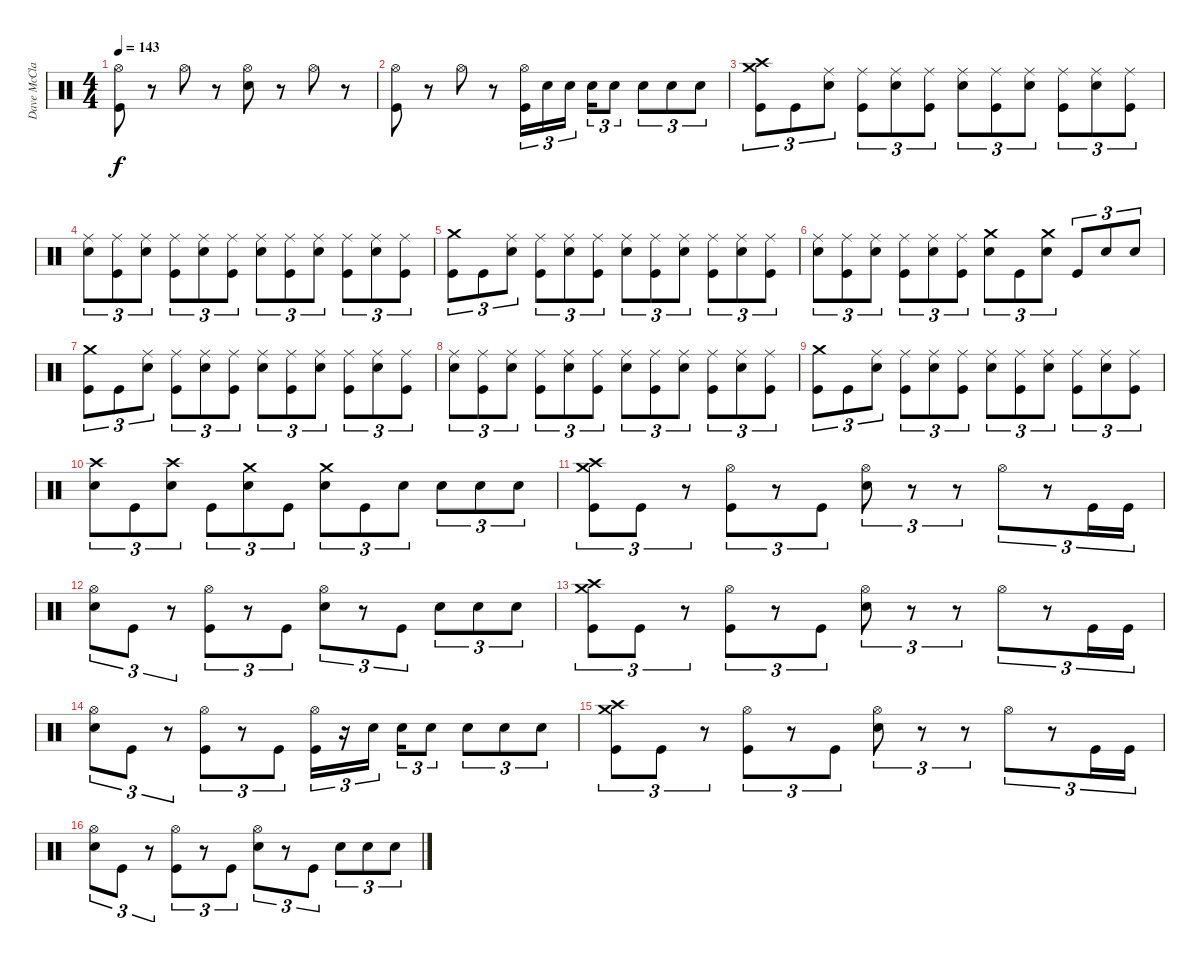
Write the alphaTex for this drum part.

\track ("Dave McClaine" "Dave McCla") {instrument percussion}
\staff {score}
\articulation defaults
\ts (4 4)
\tempo 143
\clef neutral
\ks c
("Kick (hit)" "Hi-Hat (open)").8{dy f} r.8 "Hi-Hat (open)".8 r.8 ("Hi-Hat (open)" "Snare (hit) 2").8 r.8 "Hi-Hat (open)".8 r.8 |
("Kick (hit)" "Hi-Hat (open)").8 r.8 "Hi-Hat (open)".8 r.8 ("Kick (hit)" "Hi-Hat (open)").16{tu (3 2)} "Snare (hit) 2".16{tu (3 2)} "Snare (hit) 2".16{tu (3 2)} "Snare (hit) 2".16{tu (3 2)} "Snare (hit) 2".8{tu (3 2)} "Snare (hit) 2".8{tu (3 2)} "Snare (hit) 2".8{tu (3 2)} "Snare (hit) 2".8{tu (3 2)} |
("Crash high (hit)" "Crash medium (hit)" "Kick (hit)").8{tu (3 2)} "Kick (hit)".8{tu (3 2)} ("Snare (hit) 2" "Ride (middle)").8{tu (3 2)} ("Kick (hit)" "Ride (middle)").8{tu (3 2)} ("Snare (hit) 2" "Ride (middle)").8{tu (3 2)} ("Kick (hit)" "Ride (middle)").8{tu (3 2)} ("Snare (hit) 2" "Ride (middle)").8{tu (3 2)} ("Kick (hit)" "Ride (middle)").8{tu (3 2)} ("Snare (hit) 2" "Ride (middle)").8{tu (3 2)} ("Kick (hit)" "Ride (middle)").8{tu (3 2)} ("Snare (hit) 2" "Ride (middle)").8{tu (3 2)} ("Kick (hit)" "Ride (middle)").8{tu (3 2)} |
("Snare (hit) 2" "Ride (middle)").8{tu (3 2)} ("Kick (hit)" "Ride (middle)").8{tu (3 2)} ("Snare (hit) 2" "Ride (middle)").8{tu (3 2)} ("Kick (hit)" "Ride (middle)").8{tu (3 2)} ("Snare (hit) 2" "Ride (middle)").8{tu (3 2)} ("Kick (hit)" "Ride (middle)").8{tu (3 2)} ("Snare (hit) 2" "Ride (middle)").8{tu (3 2)} ("Kick (hit)" "Ride (middle)").8{tu (3 2)} ("Snare (hit) 2" "Ride (middle)").8{tu (3 2)} ("Kick (hit)" "Ride (middle)").8{tu (3 2)} ("Snare (hit) 2" "Ride (middle)").8{tu (3 2)} ("Kick (hit)" "Ride (middle)").8{tu (3 2)} |
("Crash medium (hit)" "Kick (hit)").8{tu (3 2)} "Kick (hit)".8{tu (3 2)} ("Snare (hit) 2" "Ride (middle)").8{tu (3 2)} ("Kick (hit)" "Ride (middle)").8{tu (3 2)} ("Snare (hit) 2" "Ride (middle)").8{tu (3 2)} ("Kick (hit)" "Ride (middle)").8{tu (3 2)} ("Snare (hit) 2" "Ride (middle)").8{tu (3 2)} ("Kick (hit)" "Ride (middle)").8{tu (3 2)} ("Snare (hit) 2" "Ride (middle)").8{tu (3 2)} ("Kick (hit)" "Ride (middle)").8{tu (3 2)} ("Snare (hit) 2" "Ride (middle)").8{tu (3 2)} ("Kick (hit)" "Ride (middle)").8{tu (3 2)} |
("Snare (hit) 2" "Ride (middle)").8{tu (3 2)} ("Kick (hit)" "Ride (middle)").8{tu (3 2)} ("Snare (hit) 2" "Ride (middle)").8{tu (3 2)} ("Kick (hit)" "Ride (middle)").8{tu (3 2)} ("Snare (hit) 2" "Ride (middle)").8{tu (3 2)} ("Kick (hit)" "Ride (middle)").8{tu (3 2)} ("Snare (hit) 2" "Crash medium (hit)").8{tu (3 2)} "Kick (hit)".8{tu (3 2)} ("Snare (hit) 2" "Crash medium (hit)").8{tu (3 2)} "Kick (hit)".8{tu (3 2)} "Snare (hit) 2".8{tu (3 2)} "Snare (hit) 2".8{tu (3 2)} |
("Crash medium (hit)" "Kick (hit)").8{tu (3 2)} "Kick (hit)".8{tu (3 2)} ("Snare (hit) 2" "Ride (middle)").8{tu (3 2)} ("Kick (hit)" "Ride (middle)").8{tu (3 2)} ("Snare (hit) 2" "Ride (middle)").8{tu (3 2)} ("Kick (hit)" "Ride (middle)").8{tu (3 2)} ("Snare (hit) 2" "Ride (middle)").8{tu (3 2)} ("Kick (hit)" "Ride (middle)").8{tu (3 2)} ("Snare (hit) 2" "Ride (middle)").8{tu (3 2)} ("Kick (hit)" "Ride (middle)").8{tu (3 2)} ("Snare (hit) 2" "Ride (middle)").8{tu (3 2)} ("Kick (hit)" "Ride (middle)").8{tu (3 2)} |
("Snare (hit) 2" "Ride (middle)").8{tu (3 2)} ("Kick (hit)" "Ride (middle)").8{tu (3 2)} ("Snare (hit) 2" "Ride (middle)").8{tu (3 2)} ("Kick (hit)" "Ride (middle)").8{tu (3 2)} ("Snare (hit) 2" "Ride (middle)").8{tu (3 2)} ("Kick (hit)" "Ride (middle)").8{tu (3 2)} ("Snare (hit) 2" "Ride (middle)").8{tu (3 2)} ("Kick (hit)" "Ride (middle)").8{tu (3 2)} ("Snare (hit) 2" "Ride (middle)").8{tu (3 2)} ("Kick (hit)" "Ride (middle)").8{tu (3 2)} ("Snare (hit) 2" "Ride (middle)").8{tu (3 2)} ("Kick (hit)" "Ride (middle)").8{tu (3 2)} |
("Crash medium (hit)" "Kick (hit)").8{tu (3 2)} "Kick (hit)".8{tu (3 2)} ("Snare (hit) 2" "Ride (middle)").8{tu (3 2)} ("Kick (hit)" "Ride (middle)").8{tu (3 2)} ("Snare (hit) 2" "Ride (middle)").8{tu (3 2)} ("Kick (hit)" "Ride (middle)").8{tu (3 2)} ("Snare (hit) 2" "Ride (middle)").8{tu (3 2)} ("Kick (hit)" "Ride (middle)").8{tu (3 2)} ("Snare (hit) 2" "Ride (middle)").8{tu (3 2)} ("Kick (hit)" "Ride (middle)").8{tu (3 2)} ("Snare (hit) 2" "Ride (middle)").8{tu (3 2)} ("Kick (hit)" "Ride (middle)").8{tu (3 2)} |
("Snare (hit) 2" "Crash high (hit)").8{tu (3 2)} "Kick (hit)".8{tu (3 2)} ("Snare (hit) 2" "Crash high (hit)").8{tu (3 2)} "Kick (hit)".8{tu (3 2)} ("Snare (hit) 2" "Crash medium (hit)").8{tu (3 2)} "Kick (hit)".8{tu (3 2)} ("Snare (hit) 2" "Crash medium (hit)").8{tu (3 2)} "Kick (hit)".8{tu (3 2)} "Snare (hit) 2".8{tu (3 2)} "Snare (hit) 2".8{tu (3 2)} "Snare (hit) 2".8{tu (3 2)} "Snare (hit) 2".8{tu (3 2)} |
("Kick (hit)" "Crash high (hit)" "Crash medium (hit)").8{tu (3 2)} "Kick (hit)".8{tu (3 2)} r.8{tu (3 2)} ("Hi-Hat (open)" "Kick (hit)").8{tu (3 2)} r.8{tu (3 2)} "Kick (hit)".8{tu (3 2)} ("Snare (hit) 2" "Hi-Hat (open)").8{tu (3 2)} r.8{tu (3 2)} r.8{tu (3 2)} "Hi-Hat (open)".8{tu (3 2)} r.8{tu (3 2)} "Kick (hit)".16{tu (3 2)} "Kick (hit)".16{tu (3 2)} |
("Snare (hit) 2" "Hi-Hat (open)").8{tu (3 2)} "Kick (hit)".8{tu (3 2)} r.8{tu (3 2)} ("Hi-Hat (open)" "Kick (hit)").8{tu (3 2)} r.8{tu (3 2)} "Kick (hit)".8{tu (3 2)} ("Snare (hit) 2" "Hi-Hat (open)").8{tu (3 2)} r.8{tu (3 2)} "Kick (hit)".8{tu (3 2)} "Snare (hit) 2".8{tu (3 2)} "Snare (hit) 2".8{tu (3 2)} "Snare (hit) 2".8{tu (3 2)} |
("Kick (hit)" "Crash high (hit)" "Crash medium (hit)").8{tu (3 2)} "Kick (hit)".8{tu (3 2)} r.8{tu (3 2)} ("Hi-Hat (open)" "Kick (hit)").8{tu (3 2)} r.8{tu (3 2)} "Kick (hit)".8{tu (3 2)} ("Snare (hit) 2" "Hi-Hat (open)").8{tu (3 2)} r.8{tu (3 2)} r.8{tu (3 2)} "Hi-Hat (open)".8{tu (3 2)} r.8{tu (3 2)} "Kick (hit)".16{tu (3 2)} "Kick (hit)".16{tu (3 2)} |
("Snare (hit) 2" "Hi-Hat (open)").8{tu (3 2)} "Kick (hit)".8{tu (3 2)} r.8{tu (3 2)} ("Hi-Hat (open)" "Kick (hit)").8{tu (3 2)} r.8{tu (3 2)} "Kick (hit)".8{tu (3 2)} ("Kick (hit)" "Hi-Hat (open)").16{tu (3 2)} r.16{tu (3 2)} "Snare (hit) 2".16{tu (3 2)} "Snare (hit) 2".16{tu (3 2)} "Snare (hit) 2".8{tu (3 2)} "Snare (hit) 2".8{tu (3 2)} "Snare (hit) 2".8{tu (3 2)} "Snare (hit) 2".8{tu (3 2)} |
("Kick (hit)" "Crash high (hit)" "Crash medium (hit)").8{tu (3 2)} "Kick (hit)".8{tu (3 2)} r.8{tu (3 2)} ("Hi-Hat (open)" "Kick (hit)").8{tu (3 2)} r.8{tu (3 2)} "Kick (hit)".8{tu (3 2)} ("Snare (hit) 2" "Hi-Hat (open)").8{tu (3 2)} r.8{tu (3 2)} r.8{tu (3 2)} "Hi-Hat (open)".8{tu (3 2)} r.8{tu (3 2)} "Kick (hit)".16{tu (3 2)} "Kick (hit)".16{tu (3 2)} |
("Snare (hit) 2" "Hi-Hat (open)").8{tu (3 2)} "Kick (hit)".8{tu (3 2)} r.8{tu (3 2)} ("Hi-Hat (open)" "Kick (hit)").8{tu (3 2)} r.8{tu (3 2)} "Kick (hit)".8{tu (3 2)} ("Snare (hit) 2" "Hi-Hat (open)").8{tu (3 2)} r.8{tu (3 2)} "Kick (hit)".8{tu (3 2)} "Snare (hit) 2".8{tu (3 2)} "Snare (hit) 2".8{tu (3 2)} "Snare (hit) 2".8{tu (3 2)}
